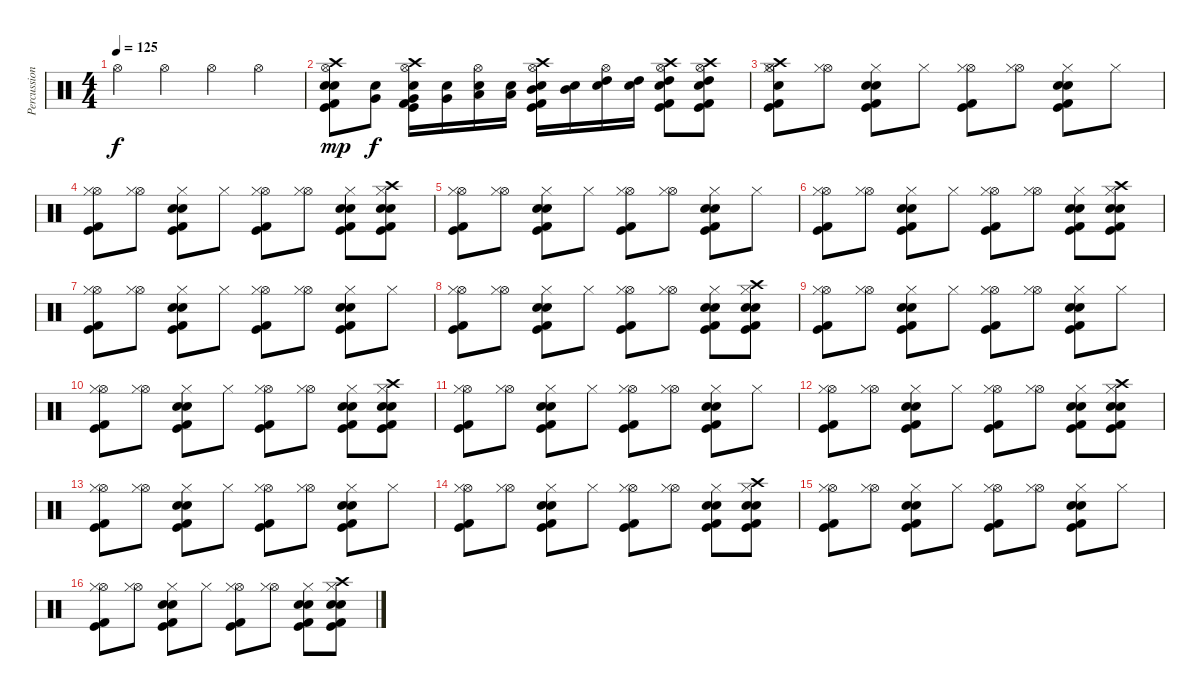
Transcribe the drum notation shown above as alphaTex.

\track ("Percussion" "Percussion") {instrument percussion}
\staff {score}
\articulation defaults
\ts (4 4)
\tempo 125
\clef neutral
\ks c "Hi-Hat (open)".4{dy f} "Hi-Hat (open)".4 "Hi-Hat (open)".4 "Hi-Hat (open)".4
|
("Kick (hit) 2" "Crash high (hit)" "Hi-Hat (open)" "Electric Snare (hit)" "Electric Snare (hit)" "Kick (hit)").8{dy mp} ("Very Low Tom (hit)" "Electric Snare (hit)").8{dy f} ("Crash high (hit)" "Very Low Tom (hit)" "Hi-Hat (open)" "Electric Snare (hit)" "Kick (hit) 2" "Kick (hit)").16 ("Very Low Tom (hit)" "Electric Snare (hit)").16 ("Low Tom (hit)" "Hi-Hat (open)" "Electric Snare (hit)").16 ("Low Tom (hit)" "Electric Snare (hit)").16 ("Crash high (hit)" "Mid Tom (hit)" "Hi-Hat (open)" "Electric Snare (hit)" "Kick (hit) 2" "Kick (hit)").16 ("Mid Tom (hit)" "Electric Snare (hit)").16 ("High Tom (hit)" "Hi-Hat (open)" "Electric Snare (hit)").16 ("High Tom (hit)" "Electric Snare (hit)").16 ("Crash high (hit)" "High Tom (hit)" "Hi-Hat (open)" "Electric Snare (hit)" "Kick (hit) 2" "Kick (hit)").8 ("Crash high (hit)" "High Tom (hit)" "Hi-Hat (open)" "Electric Snare (hit)" "Kick (hit) 2" "Kick (hit)").8 |
("Hi-Hat (open)" "Crash high (hit)" "Electric Snare (hit)" "Kick (hit)" "Kick (hit) 2" "Hi-Hat (closed)").8 ("Hi-Hat (open)" "Hi-Hat (closed)").8 ("Electric Snare (hit)" "Electric Snare (hit)" "Kick (hit)" "Kick (hit) 2" "Hi-Hat (closed)").8 "Hi-Hat (closed)".8 ("Hi-Hat (open)" "Kick (hit)" "Kick (hit) 2" "Hi-Hat (closed)").8 ("Hi-Hat (open)" "Hi-Hat (closed)").8 ("Electric Snare (hit)" "Electric Snare (hit)" "Kick (hit)" "Kick (hit) 2" "Hi-Hat (closed)").8 "Hi-Hat (closed)".8 |
("Hi-Hat (open)" "Kick (hit)" "Kick (hit) 2" "Hi-Hat (closed)").8 ("Hi-Hat (open)" "Hi-Hat (closed)").8 ("Electric Snare (hit)" "Electric Snare (hit)" "Kick (hit)" "Kick (hit) 2" "Hi-Hat (closed)").8 "Hi-Hat (closed)".8 ("Hi-Hat (open)" "Kick (hit)" "Kick (hit) 2" "Hi-Hat (closed)").8 ("Hi-Hat (open)" "Hi-Hat (closed)").8 ("Electric Snare (hit)" "Electric Snare (hit)" "Kick (hit)" "Kick (hit) 2" "Hi-Hat (closed)").8 ("Crash high (hit)" "Electric Snare (hit)" "Electric Snare (hit)" "Kick (hit)" "Kick (hit) 2" "Hi-Hat (closed)").8 |
("Hi-Hat (open)" "Kick (hit)" "Kick (hit) 2" "Hi-Hat (closed)").8 ("Hi-Hat (open)" "Hi-Hat (closed)").8 ("Electric Snare (hit)" "Electric Snare (hit)" "Kick (hit)" "Kick (hit) 2" "Hi-Hat (closed)").8 "Hi-Hat (closed)".8 ("Hi-Hat (open)" "Kick (hit)" "Kick (hit) 2" "Hi-Hat (closed)").8 ("Hi-Hat (open)" "Hi-Hat (closed)").8 ("Electric Snare (hit)" "Electric Snare (hit)" "Kick (hit)" "Kick (hit) 2" "Hi-Hat (closed)").8 "Hi-Hat (closed)".8 |
("Hi-Hat (open)" "Kick (hit)" "Kick (hit) 2" "Hi-Hat (closed)").8 ("Hi-Hat (open)" "Hi-Hat (closed)").8 ("Electric Snare (hit)" "Electric Snare (hit)" "Kick (hit)" "Kick (hit) 2" "Hi-Hat (closed)").8 "Hi-Hat (closed)".8 ("Hi-Hat (open)" "Kick (hit)" "Kick (hit) 2" "Hi-Hat (closed)").8 ("Hi-Hat (open)" "Hi-Hat (closed)").8 ("Electric Snare (hit)" "Electric Snare (hit)" "Kick (hit)" "Kick (hit) 2" "Hi-Hat (closed)").8 ("Crash high (hit)" "Electric Snare (hit)" "Electric Snare (hit)" "Kick (hit)" "Kick (hit) 2" "Hi-Hat (closed)").8 |
("Hi-Hat (open)" "Kick (hit)" "Kick (hit) 2" "Hi-Hat (closed)").8 ("Hi-Hat (open)" "Hi-Hat (closed)").8 ("Electric Snare (hit)" "Electric Snare (hit)" "Kick (hit)" "Kick (hit) 2" "Hi-Hat (closed)").8 "Hi-Hat (closed)".8 ("Hi-Hat (open)" "Kick (hit)" "Kick (hit) 2" "Hi-Hat (closed)").8 ("Hi-Hat (open)" "Hi-Hat (closed)").8 ("Electric Snare (hit)" "Electric Snare (hit)" "Kick (hit)" "Kick (hit) 2" "Hi-Hat (closed)").8 "Hi-Hat (closed)".8 |
("Hi-Hat (open)" "Kick (hit)" "Kick (hit) 2" "Hi-Hat (closed)").8 ("Hi-Hat (open)" "Hi-Hat (closed)").8 ("Electric Snare (hit)" "Electric Snare (hit)" "Kick (hit)" "Kick (hit) 2" "Hi-Hat (closed)").8 "Hi-Hat (closed)".8 ("Hi-Hat (open)" "Kick (hit)" "Kick (hit) 2" "Hi-Hat (closed)").8 ("Hi-Hat (open)" "Hi-Hat (closed)").8 ("Electric Snare (hit)" "Electric Snare (hit)" "Kick (hit)" "Kick (hit) 2" "Hi-Hat (closed)").8 ("Crash high (hit)" "Electric Snare (hit)" "Electric Snare (hit)" "Kick (hit)" "Kick (hit) 2" "Hi-Hat (closed)").8 |
("Hi-Hat (open)" "Kick (hit)" "Kick (hit) 2" "Hi-Hat (closed)").8 ("Hi-Hat (open)" "Hi-Hat (closed)").8 ("Electric Snare (hit)" "Electric Snare (hit)" "Kick (hit)" "Kick (hit) 2" "Hi-Hat (closed)").8 "Hi-Hat (closed)".8 ("Hi-Hat (open)" "Kick (hit)" "Kick (hit) 2" "Hi-Hat (closed)").8 ("Hi-Hat (open)" "Hi-Hat (closed)").8 ("Electric Snare (hit)" "Electric Snare (hit)" "Kick (hit)" "Kick (hit) 2" "Hi-Hat (closed)").8 "Hi-Hat (closed)".8 |
("Hi-Hat (open)" "Kick (hit)" "Kick (hit) 2" "Hi-Hat (closed)").8 ("Hi-Hat (open)" "Hi-Hat (closed)").8 ("Electric Snare (hit)" "Electric Snare (hit)" "Kick (hit)" "Kick (hit) 2" "Hi-Hat (closed)").8 "Hi-Hat (closed)".8 ("Hi-Hat (open)" "Kick (hit)" "Kick (hit) 2" "Hi-Hat (closed)").8 ("Hi-Hat (open)" "Hi-Hat (closed)").8 ("Electric Snare (hit)" "Electric Snare (hit)" "Kick (hit)" "Kick (hit) 2" "Hi-Hat (closed)").8 ("Crash high (hit)" "Electric Snare (hit)" "Electric Snare (hit)" "Kick (hit)" "Kick (hit) 2" "Hi-Hat (closed)").8 |
("Hi-Hat (open)" "Kick (hit)" "Kick (hit) 2" "Hi-Hat (closed)").8 ("Hi-Hat (open)" "Hi-Hat (closed)").8 ("Electric Snare (hit)" "Electric Snare (hit)" "Kick (hit)" "Kick (hit) 2" "Hi-Hat (closed)").8 "Hi-Hat (closed)".8 ("Hi-Hat (open)" "Kick (hit)" "Kick (hit) 2" "Hi-Hat (closed)").8 ("Hi-Hat (open)" "Hi-Hat (closed)").8 ("Electric Snare (hit)" "Electric Snare (hit)" "Kick (hit)" "Kick (hit) 2" "Hi-Hat (closed)").8 "Hi-Hat (closed)".8 |
("Hi-Hat (open)" "Kick (hit)" "Kick (hit) 2" "Hi-Hat (closed)").8 ("Hi-Hat (open)" "Hi-Hat (closed)").8 ("Electric Snare (hit)" "Electric Snare (hit)" "Kick (hit)" "Kick (hit) 2" "Hi-Hat (closed)").8 "Hi-Hat (closed)".8 ("Hi-Hat (open)" "Kick (hit)" "Kick (hit) 2" "Hi-Hat (closed)").8 ("Hi-Hat (open)" "Hi-Hat (closed)").8 ("Electric Snare (hit)" "Electric Snare (hit)" "Kick (hit)" "Kick (hit) 2" "Hi-Hat (closed)").8 ("Crash high (hit)" "Electric Snare (hit)" "Electric Snare (hit)" "Kick (hit)" "Kick (hit) 2" "Hi-Hat (closed)").8 |
("Hi-Hat (open)" "Kick (hit)" "Kick (hit) 2" "Hi-Hat (closed)").8 ("Hi-Hat (open)" "Hi-Hat (closed)").8 ("Electric Snare (hit)" "Electric Snare (hit)" "Kick (hit)" "Kick (hit) 2" "Hi-Hat (closed)").8 "Hi-Hat (closed)".8 ("Hi-Hat (open)" "Kick (hit)" "Kick (hit) 2" "Hi-Hat (closed)").8 ("Hi-Hat (open)" "Hi-Hat (closed)").8 ("Electric Snare (hit)" "Electric Snare (hit)" "Kick (hit)" "Kick (hit) 2" "Hi-Hat (closed)").8 "Hi-Hat (closed)".8 |
("Hi-Hat (open)" "Kick (hit)" "Kick (hit) 2" "Hi-Hat (closed)").8 ("Hi-Hat (open)" "Hi-Hat (closed)").8 ("Electric Snare (hit)" "Electric Snare (hit)" "Kick (hit)" "Kick (hit) 2" "Hi-Hat (closed)").8 "Hi-Hat (closed)".8 ("Hi-Hat (open)" "Kick (hit)" "Kick (hit) 2" "Hi-Hat (closed)").8 ("Hi-Hat (open)" "Hi-Hat (closed)").8 ("Electric Snare (hit)" "Electric Snare (hit)" "Kick (hit)" "Kick (hit) 2" "Hi-Hat (closed)").8 ("Crash high (hit)" "Electric Snare (hit)" "Electric Snare (hit)" "Kick (hit)" "Kick (hit) 2" "Hi-Hat (closed)").8 |
("Hi-Hat (open)" "Kick (hit)" "Kick (hit) 2" "Hi-Hat (closed)").8 ("Hi-Hat (open)" "Hi-Hat (closed)").8 ("Electric Snare (hit)" "Electric Snare (hit)" "Kick (hit)" "Kick (hit) 2" "Hi-Hat (closed)").8 "Hi-Hat (closed)".8 ("Hi-Hat (open)" "Kick (hit)" "Kick (hit) 2" "Hi-Hat (closed)").8 ("Hi-Hat (open)" "Hi-Hat (closed)").8 ("Electric Snare (hit)" "Electric Snare (hit)" "Kick (hit)" "Kick (hit) 2" "Hi-Hat (closed)").8 "Hi-Hat (closed)".8 |
("Hi-Hat (open)" "Kick (hit)" "Kick (hit) 2" "Hi-Hat (closed)").8 ("Hi-Hat (open)" "Hi-Hat (closed)").8 ("Electric Snare (hit)" "Electric Snare (hit)" "Kick (hit)" "Kick (hit) 2" "Hi-Hat (closed)").8 "Hi-Hat (closed)".8 ("Hi-Hat (open)" "Kick (hit)" "Kick (hit) 2" "Hi-Hat (closed)").8 ("Hi-Hat (open)" "Hi-Hat (closed)").8 ("Electric Snare (hit)" "Electric Snare (hit)" "Kick (hit)" "Kick (hit) 2" "Hi-Hat (closed)").8 ("Crash high (hit)" "Electric Snare (hit)" "Electric Snare (hit)" "Kick (hit)" "Kick (hit) 2" "Hi-Hat (closed)").8
